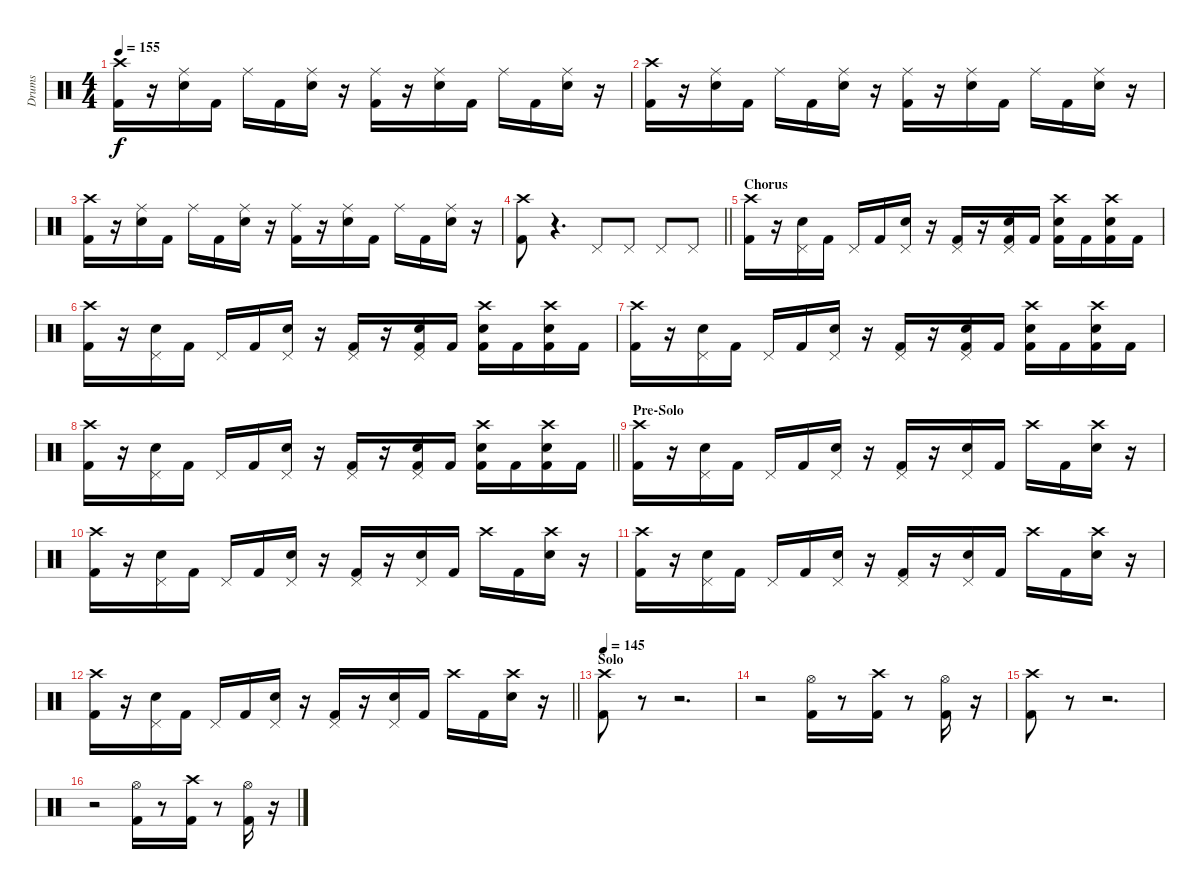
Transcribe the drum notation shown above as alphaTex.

\track ("Drums" "Drums") {instrument percussion}
\staff {score}
\articulation defaults
\ts (4 4)
\tempo 155
\clef neutral
\ks c
("Crash high (hit)" "Kick (hit) 2").16{dy f} r.16 ("Ride (middle)" "Snare (hit) 2").16 "Kick (hit) 2".16 "Ride (middle)".16 "Kick (hit) 2".16 ("Ride (middle)" "Snare (hit) 2").16 r.16 ("Ride (middle)" "Kick (hit) 2").16 r.16 ("Ride (middle)" "Snare (hit) 2").16 "Kick (hit) 2".16 "Ride (middle)".16 "Kick (hit) 2".16 ("Ride (middle)" "Snare (hit) 2").16 r.16 |
("Crash high (hit)" "Kick (hit) 2").16 r.16 ("Ride (middle)" "Snare (hit) 2").16 "Kick (hit) 2".16 "Ride (middle)".16 "Kick (hit) 2".16 ("Ride (middle)" "Snare (hit) 2").16 r.16 ("Ride (middle)" "Kick (hit) 2").16 r.16 ("Ride (middle)" "Snare (hit) 2").16 "Kick (hit) 2".16 "Ride (middle)".16 "Kick (hit) 2".16 ("Ride (middle)" "Snare (hit) 2").16 r.16 |
("Crash high (hit)" "Kick (hit) 2").16 r.16 ("Ride (middle)" "Snare (hit) 2").16 "Kick (hit) 2".16 "Ride (middle)".16 "Kick (hit) 2".16 ("Ride (middle)" "Snare (hit) 2").16 r.16 ("Ride (middle)" "Kick (hit) 2").16 r.16 ("Ride (middle)" "Snare (hit) 2").16 "Kick (hit) 2".16 "Ride (middle)".16 "Kick (hit) 2".16 ("Ride (middle)" "Snare (hit) 2").16 r.16 |
\barLineRight lightlight
("Crash high (hit)" "Kick (hit) 2").8 r.4{d} "Pedal Hi-Hat (hit)".8 "Pedal Hi-Hat (hit)".8 "Pedal Hi-Hat (hit)".8 "Pedal Hi-Hat (hit)".8 |
\section ("" "Chorus")
("Crash high (hit)" "Kick (hit) 2").16 r.16 ("Pedal Hi-Hat (hit)" "Snare (hit) 2").16 "Kick (hit) 2".16 "Pedal Hi-Hat (hit)".16 "Kick (hit) 2".16 ("Pedal Hi-Hat (hit)" "Snare (hit) 2").16 r.16 ("Pedal Hi-Hat (hit)" "Kick (hit) 2").16 r.16 ("Pedal Hi-Hat (hit)" "Snare (hit) 2" "Kick (hit) 2").16 "Kick (hit) 2".16 ("Crash high (hit)" "Snare (hit) 2" "Kick (hit) 2").16 "Kick (hit) 2".16 ("Crash high (hit)" "Snare (hit) 2" "Kick (hit) 2").16 "Kick (hit) 2".16 |
("Crash high (hit)" "Kick (hit) 2").16 r.16 ("Pedal Hi-Hat (hit)" "Snare (hit) 2").16 "Kick (hit) 2".16 "Pedal Hi-Hat (hit)".16 "Kick (hit) 2".16 ("Pedal Hi-Hat (hit)" "Snare (hit) 2").16 r.16 ("Pedal Hi-Hat (hit)" "Kick (hit) 2").16 r.16 ("Pedal Hi-Hat (hit)" "Snare (hit) 2" "Kick (hit) 2").16 "Kick (hit) 2".16 ("Crash high (hit)" "Snare (hit) 2" "Kick (hit) 2").16 "Kick (hit) 2".16 ("Crash high (hit)" "Snare (hit) 2" "Kick (hit) 2").16 "Kick (hit) 2".16 |
("Crash high (hit)" "Kick (hit) 2").16 r.16 ("Pedal Hi-Hat (hit)" "Snare (hit) 2").16 "Kick (hit) 2".16 "Pedal Hi-Hat (hit)".16 "Kick (hit) 2".16 ("Pedal Hi-Hat (hit)" "Snare (hit) 2").16 r.16 ("Pedal Hi-Hat (hit)" "Kick (hit) 2").16 r.16 ("Pedal Hi-Hat (hit)" "Snare (hit) 2" "Kick (hit) 2").16 "Kick (hit) 2".16 ("Crash high (hit)" "Snare (hit) 2" "Kick (hit) 2").16 "Kick (hit) 2".16 ("Crash high (hit)" "Snare (hit) 2" "Kick (hit) 2").16 "Kick (hit) 2".16 |
\barLineRight lightlight
("Crash high (hit)" "Kick (hit) 2").16 r.16 ("Pedal Hi-Hat (hit)" "Snare (hit) 2").16 "Kick (hit) 2".16 "Pedal Hi-Hat (hit)".16 "Kick (hit) 2".16 ("Pedal Hi-Hat (hit)" "Snare (hit) 2").16 r.16 ("Pedal Hi-Hat (hit)" "Kick (hit) 2").16 r.16 ("Pedal Hi-Hat (hit)" "Snare (hit) 2" "Kick (hit) 2").16 "Kick (hit) 2".16 ("Crash high (hit)" "Snare (hit) 2" "Kick (hit) 2").16 "Kick (hit) 2".16 ("Crash high (hit)" "Snare (hit) 2" "Kick (hit) 2").16 "Kick (hit) 2".16 |
\section ("" "Pre-Solo")
("Crash high (hit)" "Kick (hit) 2").16 r.16 ("Pedal Hi-Hat (hit)" "Snare (hit) 2").16 "Kick (hit) 2".16 "Pedal Hi-Hat (hit)".16 "Kick (hit) 2".16 ("Pedal Hi-Hat (hit)" "Snare (hit) 2").16 r.16 ("Pedal Hi-Hat (hit)" "Kick (hit) 2").16 r.16 ("Pedal Hi-Hat (hit)" "Snare (hit) 2").16 "Kick (hit) 2".16 "Crash high (hit)".16 "Kick (hit) 2".16 ("Crash high (hit)" "Snare (hit) 2").16 r.16 |
("Crash high (hit)" "Kick (hit) 2").16 r.16 ("Pedal Hi-Hat (hit)" "Snare (hit) 2").16 "Kick (hit) 2".16 "Pedal Hi-Hat (hit)".16 "Kick (hit) 2".16 ("Pedal Hi-Hat (hit)" "Snare (hit) 2").16 r.16 ("Pedal Hi-Hat (hit)" "Kick (hit) 2").16 r.16 ("Pedal Hi-Hat (hit)" "Snare (hit) 2").16 "Kick (hit) 2".16 "Crash high (hit)".16 "Kick (hit) 2".16 ("Crash high (hit)" "Snare (hit) 2").16 r.16 |
("Crash high (hit)" "Kick (hit) 2").16 r.16 ("Pedal Hi-Hat (hit)" "Snare (hit) 2").16 "Kick (hit) 2".16 "Pedal Hi-Hat (hit)".16 "Kick (hit) 2".16 ("Pedal Hi-Hat (hit)" "Snare (hit) 2").16 r.16 ("Pedal Hi-Hat (hit)" "Kick (hit) 2").16 r.16 ("Pedal Hi-Hat (hit)" "Snare (hit) 2").16 "Kick (hit) 2".16 "Crash high (hit)".16 "Kick (hit) 2".16 ("Crash high (hit)" "Snare (hit) 2").16 r.16 |
\barLineRight lightlight
("Crash high (hit)" "Kick (hit) 2").16 r.16 ("Pedal Hi-Hat (hit)" "Snare (hit) 2").16 "Kick (hit) 2".16 "Pedal Hi-Hat (hit)".16 "Kick (hit) 2".16 ("Pedal Hi-Hat (hit)" "Snare (hit) 2").16 r.16 ("Pedal Hi-Hat (hit)" "Kick (hit) 2").16 r.16 ("Pedal Hi-Hat (hit)" "Snare (hit) 2").16 "Kick (hit) 2".16 "Crash high (hit)".16 "Kick (hit) 2".16 ("Crash high (hit)" "Snare (hit) 2").16 r.16 |
\section ("" "Solo")
\tempo 145
("Crash high (hit)" "Kick (hit) 2").8 r.8 r.2{d} |
r.2 ("Hi-Hat (open)" "Kick (hit) 2").16 r.8 ("Crash high (hit)" "Kick (hit) 2").16 r.8 ("Hi-Hat (open)" "Kick (hit) 2").16 r.16 |
("Crash high (hit)" "Kick (hit) 2").8 r.8 r.2{d} |
r.2 ("Hi-Hat (open)" "Kick (hit) 2").16 r.8 ("Crash high (hit)" "Kick (hit) 2").16 r.8 ("Hi-Hat (open)" "Kick (hit) 2").16 r.16
